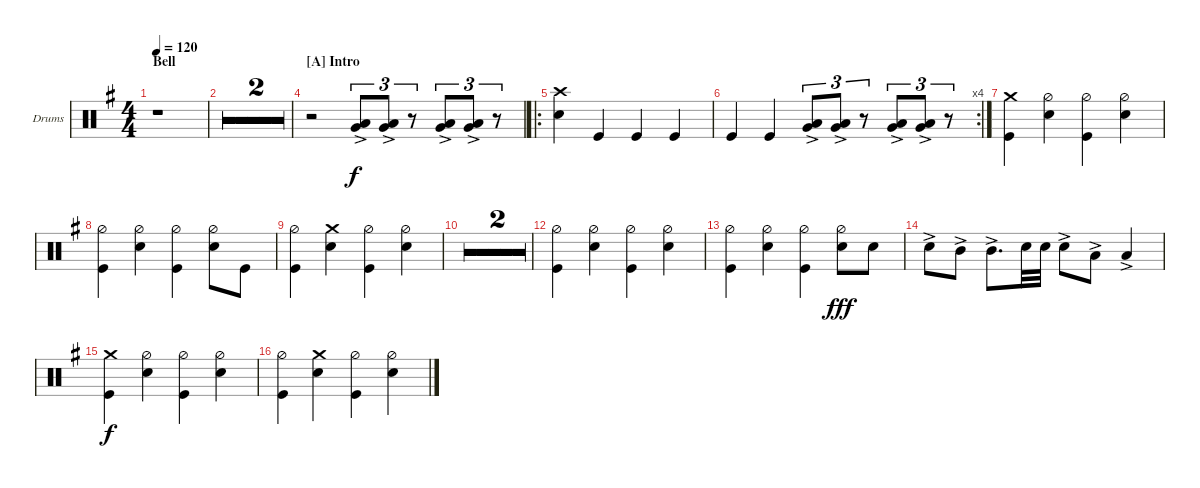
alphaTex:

\defaultSystemsLayout 4
\bracketExtendMode groupsimilarinstruments
\firstSystemTrackNameOrientation horizontal
\otherSystemsTrackNameOrientation horizontal
\track ("Drumkit" "Drums") {multiBarRest instrument percussion}
\staff {score}
\articulation defaults
\ts (4 4)
\section ("" "Bell")
\tempo 120
\clef neutral
\ks g
r.1{dy f} |
r.1 |
r.1 |
\section ("A" "Intro")
r.2 ("Low Tom (hit)"{ac} "Very Low Tom (hit)"{ac}).8{tu (3 2)} ("Very Low Tom (hit)"{ac} "Low Tom (hit)").8{tu (3 2)} r.8{tu (3 2)} ("Low Tom (hit)"{ac} "Very Low Tom (hit)"{ac}).8{tu (3 2)} ("Very Low Tom (hit)"{ac} "Low Tom (hit)").8{tu (3 2)} r.8{tu (3 2)} |
\ro
("Snare (hit) 2" "Crash high (hit)").4 "Kick (hit)".4 "Kick (hit)".4 "Kick (hit)".4 |
\rc 4 "Kick (hit)".4{beam merge} "Kick (hit)".4{beam merge}
("Low Tom (hit)"{ac} "Very Low Tom (hit)"{ac}).8{tu (3 2)} ("Very Low Tom (hit)"{ac} "Low Tom (hit)").8{tu (3 2)} r.8{tu (3 2)} ("Low Tom (hit)"{ac} "Very Low Tom (hit)"{ac}).8{tu (3 2)} ("Very Low Tom (hit)"{ac} "Low Tom (hit)").8{tu (3 2)} r.8{tu (3 2)} |
("Kick (hit)" "Crash medium (hit)").4 ("Hi-Hat (half)" "Snare (hit) 2").4 ("Hi-Hat (half)" "Kick (hit)").4 ("Snare (hit) 2" "Hi-Hat (half)").4 |
("Kick (hit)" "Hi-Hat (half)").4 ("Snare (hit) 2" "Hi-Hat (half)").4 ("Kick (hit)" "Hi-Hat (half)").4 ("Snare (hit) 2" "Hi-Hat (half)").8 "Kick (hit)".8 |
("Kick (hit)" "Hi-Hat (half)").4 ("Snare (hit) 2" "Crash medium (hit)").4 ("Kick (hit)" "Hi-Hat (half)").4 ("Snare (hit) 2" "Hi-Hat (half)").4 |
\simile firstofdouble
|
\simile secondofdouble
|
\simile none
("Kick (hit)" "Hi-Hat (half)").4 ("Snare (hit) 2" "Hi-Hat (half)").4 ("Kick (hit)" "Hi-Hat (half)").4 ("Snare (hit) 2" "Hi-Hat (half)").4 |
("Kick (hit)" "Hi-Hat (half)").4 ("Snare (hit) 2" "Hi-Hat (half)").4 ("Kick (hit)" "Hi-Hat (half)").4 ("Snare (hit) 2" "Hi-Hat (half)").8{dy fff} "Snare (hit) 2".8 |
"Snare (hit) 2"{ac}.8 "Mid Tom (hit)"{ac}.8 "Mid Tom (hit)"{ac}.8{d} "Snare (hit) 2".32 "Snare (hit) 2".32 "Snare (hit) 2"{ac}.8 "Low Tom (hit)"{ac}.8 "Low Tom (hit)"{ac}.4 |
("Kick (hit)" "Crash medium (hit)").4{dy f} ("Snare (hit) 2" "Hi-Hat (half)").4 ("Kick (hit)" "Hi-Hat (half)").4 ("Snare (hit) 2" "Hi-Hat (half)").4 |
("Kick (hit)" "Hi-Hat (half)").4{beam merge} ("Snare (hit) 2" "Crash medium (hit)").4{beam merge} ("Kick (hit)" "Hi-Hat (half)").4{beam merge} ("Snare (hit) 2" "Hi-Hat (half)").4{beam merge}
